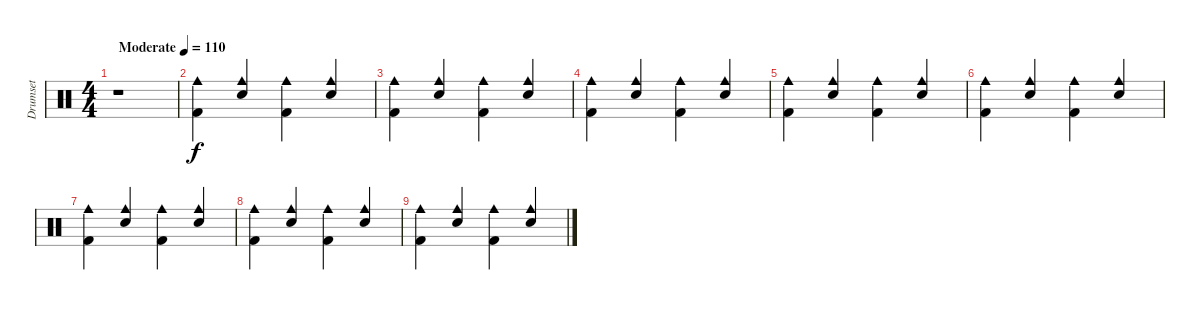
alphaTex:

\track ("Drumset" "Drumset") {instrument percussion}
\staff {score}
\articulation defaults
\ts (4 4)
\tempo (110 "Moderate")
\clef neutral
\ks c
r.1{dy f} |
("Cowbell medium (hit)" "Kick (hit) 2").4 ("Cowbell medium (hit)" "Snare (hit) 2").4{beam Up} ("Cowbell medium (hit)" "Kick (hit) 2").4 ("Cowbell medium (hit)" "Snare (hit) 2").4{beam Up} |
("Cowbell medium (hit)" "Kick (hit) 2").4 ("Cowbell medium (hit)" "Snare (hit) 2").4{beam Up} ("Cowbell medium (hit)" "Kick (hit) 2").4 ("Cowbell medium (hit)" "Snare (hit) 2").4{beam Up} |
("Cowbell medium (hit)" "Kick (hit) 2").4 ("Cowbell medium (hit)" "Snare (hit) 2").4{beam Up} ("Cowbell medium (hit)" "Kick (hit) 2").4 ("Cowbell medium (hit)" "Snare (hit) 2").4{beam Up} |
("Cowbell medium (hit)" "Kick (hit) 2").4 ("Cowbell medium (hit)" "Snare (hit) 2").4{beam Up} ("Cowbell medium (hit)" "Kick (hit) 2").4 ("Cowbell medium (hit)" "Snare (hit) 2").4{beam Up} |
("Cowbell medium (hit)" "Kick (hit) 2").4 ("Cowbell medium (hit)" "Snare (hit) 2").4{beam Up} ("Cowbell medium (hit)" "Kick (hit) 2").4 ("Cowbell medium (hit)" "Snare (hit) 2").4{beam Up} |
("Cowbell medium (hit)" "Kick (hit) 2").4 ("Cowbell medium (hit)" "Snare (hit) 2").4{beam Up} ("Cowbell medium (hit)" "Kick (hit) 2").4 ("Cowbell medium (hit)" "Snare (hit) 2").4{beam Up} |
("Cowbell medium (hit)" "Kick (hit) 2").4 ("Cowbell medium (hit)" "Snare (hit) 2").4{beam Up} ("Cowbell medium (hit)" "Kick (hit) 2").4 ("Cowbell medium (hit)" "Snare (hit) 2").4{beam Up} |
("Cowbell medium (hit)" "Kick (hit) 2").4 ("Cowbell medium (hit)" "Snare (hit) 2").4{beam Up} ("Cowbell medium (hit)" "Kick (hit) 2").4 ("Cowbell medium (hit)" "Snare (hit) 2").4{beam Up}
